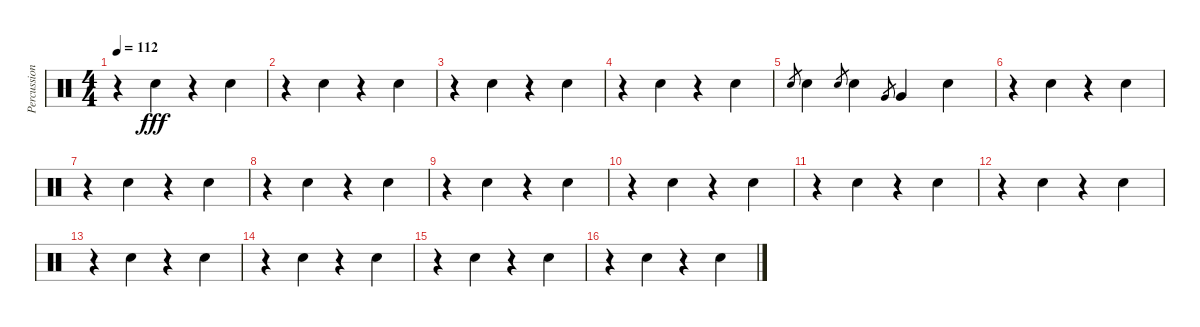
\track ("Percussion" "Percussion") {instrument percussion}
\staff {score}
\articulation defaults
\ts (4 4)
\tempo 112
\clef neutral
\ks c
r.4{dy fff} "Snare (hit) 2".4 r.4 "Snare (hit) 2".4 |
r.4 "Snare (hit) 2".4 r.4 "Snare (hit) 2".4 |
r.4 "Snare (hit) 2".4 r.4 "Snare (hit) 2".4 |
r.4 "Snare (hit) 2".4 r.4 "Snare (hit) 2".4 |
"Snare (hit) 2".8{gr} "Snare (hit) 2".4 "Snare (hit) 2".8{gr} "Snare (hit) 2".4 "Very Low Tom (hit)".8{gr} "Very Low Tom (hit)".4 "Snare (hit) 2".4 |
r.4 "Snare (hit) 2".4 r.4 "Snare (hit) 2".4 |
r.4 "Snare (hit) 2".4 r.4 "Snare (hit) 2".4 |
r.4 "Snare (hit) 2".4 r.4 "Snare (hit) 2".4 |
r.4 "Snare (hit) 2".4 r.4 "Snare (hit) 2".4 |
r.4 "Snare (hit) 2".4 r.4 "Snare (hit) 2".4 |
r.4 "Snare (hit) 2".4 r.4 "Snare (hit) 2".4 |
r.4 "Snare (hit) 2".4 r.4 "Snare (hit) 2".4 |
r.4 "Snare (hit) 2".4 r.4 "Snare (hit) 2".4 |
r.4 "Snare (hit) 2".4 r.4 "Snare (hit) 2".4 |
r.4 "Snare (hit) 2".4 r.4 "Snare (hit) 2".4 |
r.4 "Snare (hit) 2".4 r.4 "Snare (hit) 2".4
